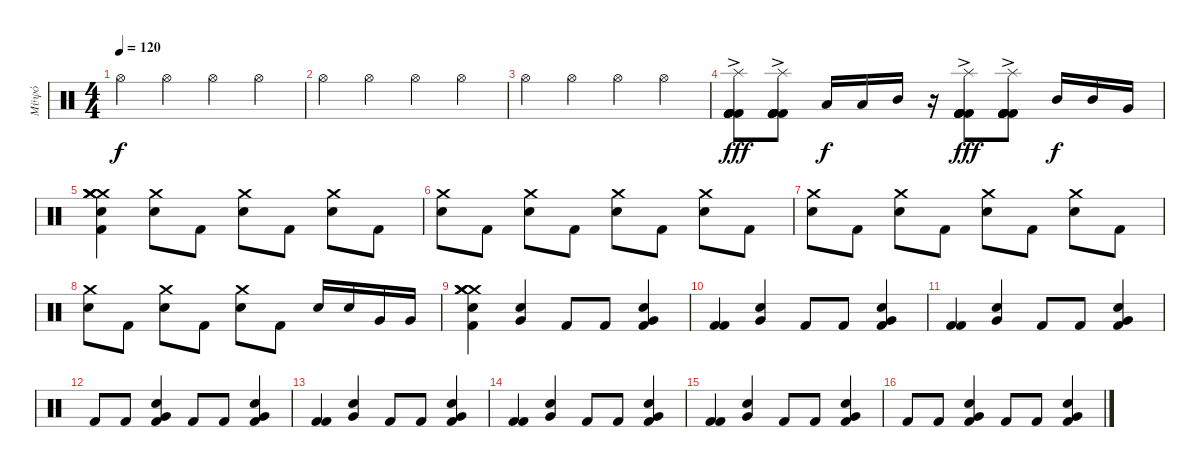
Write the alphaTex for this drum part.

\track ("Μϋψό" "Μϋψό") {instrument percussion}
\staff {score}
\articulation defaults
\ts (4 4)
\tempo 120
\tempo 158
\tempo 120
\clef neutral
\ks c "Hi-Hat (open)".4{dy f} "Hi-Hat (open)".4 "Hi-Hat (open)".4 "Hi-Hat (open)".4
|
"Hi-Hat (open)".4 "Hi-Hat (open)".4 "Hi-Hat (open)".4 "Hi-Hat (open)".4 |
"Hi-Hat (open)".4 "Hi-Hat (open)".4 "Hi-Hat (open)".4 "Hi-Hat (open)".4 |
("Splash (hit)" "Kick (hit) 2"{ac} "Kick (hit) 2"{ac} "Kick (hit) 2"{ac} "Kick (hit) 2"{ac} "Kick (hit) 2"{ac}).8{dy fff} ("Splash (hit)" "Kick (hit) 2"{ac} "Kick (hit) 2"{ac} "Kick (hit) 2"{ac} "Kick (hit) 2"{ac} "Kick (hit) 2"{ac}).8 "Low Tom (hit)".16{dy f} "Low Tom (hit)".16 "Mid Tom (hit)".16 r.16 ("Splash (hit)" "Kick (hit) 2"{ac} "Kick (hit) 2"{ac} "Kick (hit) 2"{ac} "Kick (hit) 2"{ac} "Kick (hit) 2"{ac}).8{dy fff} ("Splash (hit)" "Kick (hit) 2"{ac} "Kick (hit) 2"{ac} "Kick (hit) 2"{ac} "Kick (hit) 2"{ac} "Kick (hit) 2"{ac}).8 "Mid Tom (hit)".16{dy f} "Mid Tom (hit)".16 "Very Low Tom (hit)".16 |
("Kick (hit) 2" "Electric Snare (hit)" "Crash medium (hit)" "Crash medium (hit)" "Crash medium (hit)" "Crash medium (hit)").4 ("Electric Snare (hit)" "Crash medium (hit)").8 "Kick (hit) 2".8 ("Electric Snare (hit)" "Crash medium (hit)").8 "Kick (hit) 2".8 ("Electric Snare (hit)" "Crash medium (hit)").8 "Kick (hit) 2".8 |
("Electric Snare (hit)" "Crash medium (hit)").8 "Kick (hit) 2".8 ("Electric Snare (hit)" "Crash medium (hit)").8 "Kick (hit) 2".8 ("Electric Snare (hit)" "Crash medium (hit)").8 "Kick (hit) 2".8 ("Electric Snare (hit)" "Crash medium (hit)").8 "Kick (hit) 2".8 |
("Electric Snare (hit)" "Crash medium (hit)").8 "Kick (hit) 2".8 ("Electric Snare (hit)" "Crash medium (hit)").8 "Kick (hit) 2".8 ("Electric Snare (hit)" "Crash medium (hit)").8 "Kick (hit) 2".8 ("Electric Snare (hit)" "Crash medium (hit)").8 "Kick (hit) 2".8 |
("Electric Snare (hit)" "Crash medium (hit)").8 "Kick (hit) 2".8 ("Electric Snare (hit)" "Crash medium (hit)").8 "Kick (hit) 2".8 ("Electric Snare (hit)" "Crash medium (hit)").8 "Kick (hit) 2".8 "Electric Snare (hit)".16 "Electric Snare (hit)".16 "Very Low Tom (hit)".16 "Very Low Tom (hit)".16 |
("Kick (hit) 2" "Electric Snare (hit)" "Crash medium (hit)" "Crash medium (hit)" "Crash medium (hit)" "Crash medium (hit)").4 ("Electric Snare (hit)" "Very Low Tom (hit)").4 "Kick (hit) 2".8 "Kick (hit) 2".8 ("Electric Snare (hit)" "Kick (hit) 2" "Very Low Tom (hit)").4 |
("Kick (hit) 2" "Kick (hit) 2").4 ("Electric Snare (hit)" "Very Low Tom (hit)").4 "Kick (hit) 2".8 "Kick (hit) 2".8 ("Electric Snare (hit)" "Kick (hit) 2" "Very Low Tom (hit)").4 |
("Kick (hit) 2" "Kick (hit) 2").4 ("Electric Snare (hit)" "Very Low Tom (hit)").4 "Kick (hit) 2".8 "Kick (hit) 2".8 ("Electric Snare (hit)" "Kick (hit) 2" "Very Low Tom (hit)").4 |
"Kick (hit) 2".8 "Kick (hit) 2".8 ("Electric Snare (hit)" "Kick (hit) 2" "Very Low Tom (hit)").4 "Kick (hit) 2".8 "Kick (hit) 2".8 ("Electric Snare (hit)" "Kick (hit) 2" "Very Low Tom (hit)").4 |
("Kick (hit) 2" "Kick (hit) 2").4 ("Electric Snare (hit)" "Very Low Tom (hit)").4 "Kick (hit) 2".8 "Kick (hit) 2".8 ("Electric Snare (hit)" "Kick (hit) 2" "Very Low Tom (hit)").4 |
("Kick (hit) 2" "Kick (hit) 2").4 ("Electric Snare (hit)" "Very Low Tom (hit)").4 "Kick (hit) 2".8 "Kick (hit) 2".8 ("Electric Snare (hit)" "Kick (hit) 2" "Very Low Tom (hit)").4 |
("Kick (hit) 2" "Kick (hit) 2").4 ("Electric Snare (hit)" "Very Low Tom (hit)").4 "Kick (hit) 2".8 "Kick (hit) 2".8 ("Electric Snare (hit)" "Kick (hit) 2" "Very Low Tom (hit)").4 |
"Kick (hit) 2".8 "Kick (hit) 2".8 ("Electric Snare (hit)" "Kick (hit) 2" "Very Low Tom (hit)").4 "Kick (hit) 2".8 "Kick (hit) 2".8 ("Electric Snare (hit)" "Kick (hit) 2" "Very Low Tom (hit)").4
